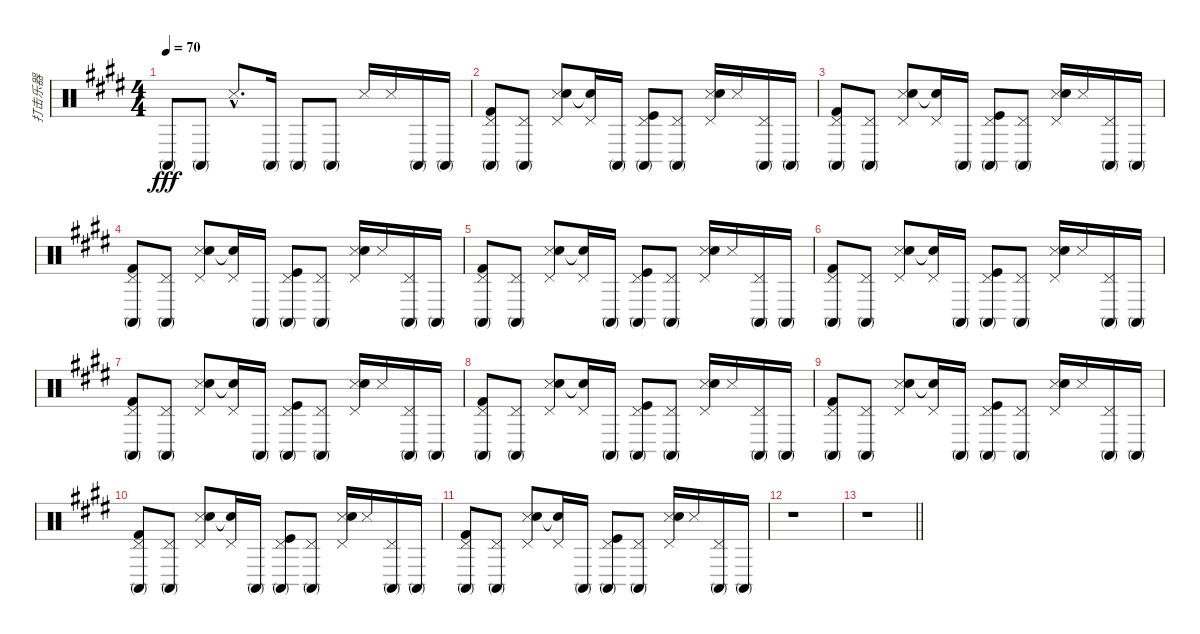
\track ("打击乐器" "打击乐器") {instrument percussion}
\staff {score}
\articulation defaults
\ts (4 4)
\tempo 70
\clef neutral
\ks e "Conga high (mute)".8{dy fff} "Conga high (mute)".8 "Metronome (hit)"{hac}.8{d} "Conga high (mute)".16 "Conga high (mute)".8 "Conga high (mute)".8 "Metronome (hit)".16 "Metronome (hit)".16 "Conga high (mute)".16 "Conga high (mute)".16
|
("Conga high (mute)" "Pedal Hi-Hat (hit)" "Kick (hit) 2").8 ("Conga high (mute)" "Pedal Hi-Hat (hit)").8 ("Metronome (hit)" "Pedal Hi-Hat (hit)" "Hand Clap (hit)").8 ("Snare (hit)"{t} "Pedal Hi-Hat (hit)").16 "Conga high (mute)".16 ("Conga high (mute)" "Pedal Hi-Hat (hit)" "Kick (hit)").8 ("Conga high (mute)" "Pedal Hi-Hat (hit)").8 ("Metronome (hit)" "Pedal Hi-Hat (hit)" "Hand Clap (hit)").16 "Metronome (hit)".16 ("Conga high (mute)" "Pedal Hi-Hat (hit)").16 "Conga high (mute)".16 |
("Conga high (mute)" "Pedal Hi-Hat (hit)" "Kick (hit) 2").8 ("Conga high (mute)" "Pedal Hi-Hat (hit)").8 ("Metronome (hit)" "Pedal Hi-Hat (hit)" "Hand Clap (hit)").8 ("Snare (hit)"{t} "Pedal Hi-Hat (hit)").16 "Conga high (mute)".16 ("Conga high (mute)" "Pedal Hi-Hat (hit)" "Kick (hit)").8 ("Conga high (mute)" "Pedal Hi-Hat (hit)").8 ("Metronome (hit)" "Pedal Hi-Hat (hit)" "Hand Clap (hit)").16 "Metronome (hit)".16 ("Conga high (mute)" "Pedal Hi-Hat (hit)").16 "Conga high (mute)".16 |
("Conga high (mute)" "Pedal Hi-Hat (hit)" "Kick (hit) 2").8 ("Conga high (mute)" "Pedal Hi-Hat (hit)").8 ("Metronome (hit)" "Pedal Hi-Hat (hit)" "Hand Clap (hit)").8 ("Snare (hit)"{t} "Pedal Hi-Hat (hit)").16 "Conga high (mute)".16 ("Conga high (mute)" "Pedal Hi-Hat (hit)" "Kick (hit)").8 ("Conga high (mute)" "Pedal Hi-Hat (hit)").8 ("Metronome (hit)" "Pedal Hi-Hat (hit)" "Hand Clap (hit)").16 "Metronome (hit)".16 ("Conga high (mute)" "Pedal Hi-Hat (hit)").16 "Conga high (mute)".16 |
("Conga high (mute)" "Pedal Hi-Hat (hit)" "Kick (hit) 2").8 ("Conga high (mute)" "Pedal Hi-Hat (hit)").8 ("Metronome (hit)" "Pedal Hi-Hat (hit)" "Hand Clap (hit)").8 ("Snare (hit)"{t} "Pedal Hi-Hat (hit)").16 "Conga high (mute)".16 ("Conga high (mute)" "Pedal Hi-Hat (hit)" "Kick (hit)").8 ("Conga high (mute)" "Pedal Hi-Hat (hit)").8 ("Metronome (hit)" "Pedal Hi-Hat (hit)" "Hand Clap (hit)").16 "Metronome (hit)".16 ("Conga high (mute)" "Pedal Hi-Hat (hit)").16 "Conga high (mute)".16 |
("Conga high (mute)" "Pedal Hi-Hat (hit)" "Kick (hit) 2").8 ("Conga high (mute)" "Pedal Hi-Hat (hit)").8 ("Metronome (hit)" "Pedal Hi-Hat (hit)" "Hand Clap (hit)").8 ("Snare (hit)"{t} "Pedal Hi-Hat (hit)").16 "Conga high (mute)".16 ("Conga high (mute)" "Pedal Hi-Hat (hit)" "Kick (hit)").8 ("Conga high (mute)" "Pedal Hi-Hat (hit)").8 ("Metronome (hit)" "Pedal Hi-Hat (hit)" "Hand Clap (hit)").16 "Metronome (hit)".16 ("Conga high (mute)" "Pedal Hi-Hat (hit)").16 "Conga high (mute)".16 |
("Conga high (mute)" "Pedal Hi-Hat (hit)" "Kick (hit) 2").8 ("Conga high (mute)" "Pedal Hi-Hat (hit)").8 ("Metronome (hit)" "Pedal Hi-Hat (hit)" "Hand Clap (hit)").8 ("Snare (hit)"{t} "Pedal Hi-Hat (hit)").16 "Conga high (mute)".16 ("Conga high (mute)" "Pedal Hi-Hat (hit)" "Kick (hit)").8 ("Conga high (mute)" "Pedal Hi-Hat (hit)").8 ("Metronome (hit)" "Pedal Hi-Hat (hit)" "Hand Clap (hit)").16 "Metronome (hit)".16 ("Conga high (mute)" "Pedal Hi-Hat (hit)").16 "Conga high (mute)".16 |
("Conga high (mute)" "Pedal Hi-Hat (hit)" "Kick (hit) 2").8 ("Conga high (mute)" "Pedal Hi-Hat (hit)").8 ("Metronome (hit)" "Pedal Hi-Hat (hit)" "Hand Clap (hit)").8 ("Snare (hit)"{t} "Pedal Hi-Hat (hit)").16 "Conga high (mute)".16 ("Conga high (mute)" "Pedal Hi-Hat (hit)" "Kick (hit)").8 ("Conga high (mute)" "Pedal Hi-Hat (hit)").8 ("Metronome (hit)" "Pedal Hi-Hat (hit)" "Hand Clap (hit)").16 "Metronome (hit)".16 ("Conga high (mute)" "Pedal Hi-Hat (hit)").16 "Conga high (mute)".16 |
("Conga high (mute)" "Pedal Hi-Hat (hit)" "Kick (hit) 2").8 ("Conga high (mute)" "Pedal Hi-Hat (hit)").8 ("Metronome (hit)" "Pedal Hi-Hat (hit)" "Hand Clap (hit)").8 ("Snare (hit)"{t} "Pedal Hi-Hat (hit)").16 "Conga high (mute)".16 ("Conga high (mute)" "Pedal Hi-Hat (hit)" "Kick (hit)").8 ("Conga high (mute)" "Pedal Hi-Hat (hit)").8 ("Metronome (hit)" "Pedal Hi-Hat (hit)" "Hand Clap (hit)").16 "Metronome (hit)".16 ("Conga high (mute)" "Pedal Hi-Hat (hit)").16 "Conga high (mute)".16 |
("Conga high (mute)" "Pedal Hi-Hat (hit)" "Kick (hit) 2").8 ("Conga high (mute)" "Pedal Hi-Hat (hit)").8 ("Metronome (hit)" "Pedal Hi-Hat (hit)" "Hand Clap (hit)").8 ("Snare (hit)"{t} "Pedal Hi-Hat (hit)").16 "Conga high (mute)".16 ("Conga high (mute)" "Pedal Hi-Hat (hit)" "Kick (hit)").8 ("Conga high (mute)" "Pedal Hi-Hat (hit)").8 ("Metronome (hit)" "Pedal Hi-Hat (hit)" "Hand Clap (hit)").16 "Metronome (hit)".16 ("Conga high (mute)" "Pedal Hi-Hat (hit)").16 "Conga high (mute)".16 |
("Conga high (mute)" "Pedal Hi-Hat (hit)" "Kick (hit) 2").8 ("Conga high (mute)" "Pedal Hi-Hat (hit)").8 ("Metronome (hit)" "Pedal Hi-Hat (hit)" "Hand Clap (hit)").8 ("Snare (hit)"{t} "Pedal Hi-Hat (hit)").16 "Conga high (mute)".16 ("Conga high (mute)" "Pedal Hi-Hat (hit)" "Kick (hit)").8 ("Conga high (mute)" "Pedal Hi-Hat (hit)").8 ("Metronome (hit)" "Pedal Hi-Hat (hit)" "Hand Clap (hit)").16 "Metronome (hit)".16 ("Conga high (mute)" "Pedal Hi-Hat (hit)").16 "Conga high (mute)".16 |
r.1 |
\barLineRight lightlight
r.1
